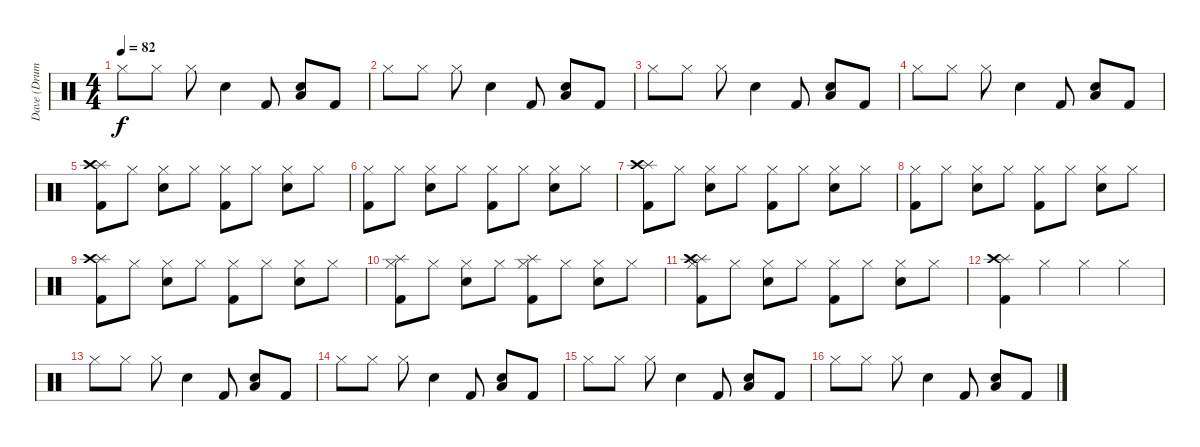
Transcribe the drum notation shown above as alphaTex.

\track ("Dave (Drums)" "Dave (Drum") {instrument percussion}
\staff {score}
\articulation defaults
\ts (4 4)
\tempo 82
\clef neutral
\ks c "Hi-Hat (closed)".8{dy f} "Hi-Hat (closed)".8 "Hi-Hat (closed)".8 "Snare (hit) 2".4 "Kick (hit) 2".8
("Snare (hit) 2" "Low Tom (hit)").8 "Kick (hit) 2".8 |
"Hi-Hat (closed)".8 "Hi-Hat (closed)".8 "Hi-Hat (closed)".8 "Snare (hit) 2".4 "Kick (hit) 2".8 ("Snare (hit) 2" "Low Tom (hit)").8 "Kick (hit) 2".8 |
"Hi-Hat (closed)".8 "Hi-Hat (closed)".8 "Hi-Hat (closed)".8 "Snare (hit) 2".4 "Kick (hit) 2".8 ("Snare (hit) 2" "Low Tom (hit)").8 "Kick (hit) 2".8 |
"Hi-Hat (closed)".8 "Hi-Hat (closed)".8 "Hi-Hat (closed)".8 "Snare (hit) 2".4 "Kick (hit) 2".8 ("Snare (hit) 2" "Low Tom (hit)").8 "Kick (hit) 2".8 |
("Splash (hit)" "Crash high (hit)" "Kick (hit) 2").8 "Hi-Hat (closed)".8 ("Hi-Hat (closed)" "Snare (hit) 2").8 "Hi-Hat (closed)".8 ("Hi-Hat (closed)" "Kick (hit) 2").8 "Hi-Hat (closed)".8 ("Hi-Hat (closed)" "Snare (hit) 2").8 "Hi-Hat (closed)".8 |
("Hi-Hat (closed)" "Kick (hit) 2").8 "Hi-Hat (closed)".8 ("Hi-Hat (closed)" "Snare (hit) 2").8 "Hi-Hat (closed)".8 ("Hi-Hat (closed)" "Kick (hit) 2").8 "Hi-Hat (closed)".8 ("Hi-Hat (closed)" "Snare (hit) 2").8 "Hi-Hat (closed)".8 |
("Splash (hit)" "Crash high (hit)" "Kick (hit) 2").8 "Hi-Hat (closed)".8 ("Hi-Hat (closed)" "Snare (hit) 2").8 "Hi-Hat (closed)".8 ("Hi-Hat (closed)" "Kick (hit) 2").8 "Hi-Hat (closed)".8 ("Hi-Hat (closed)" "Snare (hit) 2").8 "Hi-Hat (closed)".8 |
("Hi-Hat (closed)" "Kick (hit) 2").8 "Hi-Hat (closed)".8 ("Hi-Hat (closed)" "Snare (hit) 2").8 "Hi-Hat (closed)".8 ("Hi-Hat (closed)" "Kick (hit) 2").8 "Hi-Hat (closed)".8 ("Hi-Hat (closed)" "Snare (hit) 2").8 "Hi-Hat (closed)".8 |
("Splash (hit)" "Crash high (hit)" "Kick (hit) 2").8 "Hi-Hat (closed)".8 ("Hi-Hat (closed)" "Snare (hit) 2").8 "Hi-Hat (closed)".8 ("Hi-Hat (closed)" "Kick (hit) 2").8 "Hi-Hat (closed)".8 ("Hi-Hat (closed)" "Snare (hit) 2").8 "Hi-Hat (closed)".8 |
("Hi-Hat (closed)" "Splash (hit)" "Kick (hit) 2").8 "Hi-Hat (closed)".8 ("Hi-Hat (closed)" "Snare (hit) 2").8 "Hi-Hat (closed)".8 ("Hi-Hat (closed)" "Splash (hit)" "Kick (hit) 2").8 "Hi-Hat (closed)".8 ("Hi-Hat (closed)" "Snare (hit) 2").8 "Hi-Hat (closed)".8 |
("Hi-Hat (closed)" "Splash (hit)" "Crash high (hit)" "Kick (hit) 2").8 "Hi-Hat (closed)".8 ("Hi-Hat (closed)" "Snare (hit) 2").8 "Hi-Hat (closed)".8 ("Hi-Hat (closed)" "Kick (hit) 2").8 "Hi-Hat (closed)".8 ("Hi-Hat (closed)" "Snare (hit) 2").8 "Hi-Hat (closed)".8 |
("Splash (hit)" "Crash high (hit)" "Kick (hit) 2").4 "Hi-Hat (closed)".4 "Hi-Hat (closed)".4 "Hi-Hat (closed)".4 |
"Hi-Hat (closed)".8 "Hi-Hat (closed)".8 "Hi-Hat (closed)".8 "Snare (hit) 2".4 "Kick (hit) 2".8 ("Snare (hit) 2" "Low Tom (hit)").8 "Kick (hit) 2".8 |
"Hi-Hat (closed)".8 "Hi-Hat (closed)".8 "Hi-Hat (closed)".8 "Snare (hit) 2".4 "Kick (hit) 2".8 ("Snare (hit) 2" "Low Tom (hit)").8 "Kick (hit) 2".8 |
"Hi-Hat (closed)".8 "Hi-Hat (closed)".8 "Hi-Hat (closed)".8 "Snare (hit) 2".4 "Kick (hit) 2".8 ("Snare (hit) 2" "Low Tom (hit)").8 "Kick (hit) 2".8 |
"Hi-Hat (closed)".8 "Hi-Hat (closed)".8 "Hi-Hat (closed)".8 "Snare (hit) 2".4 "Kick (hit) 2".8 ("Snare (hit) 2" "Low Tom (hit)").8 "Kick (hit) 2".8
